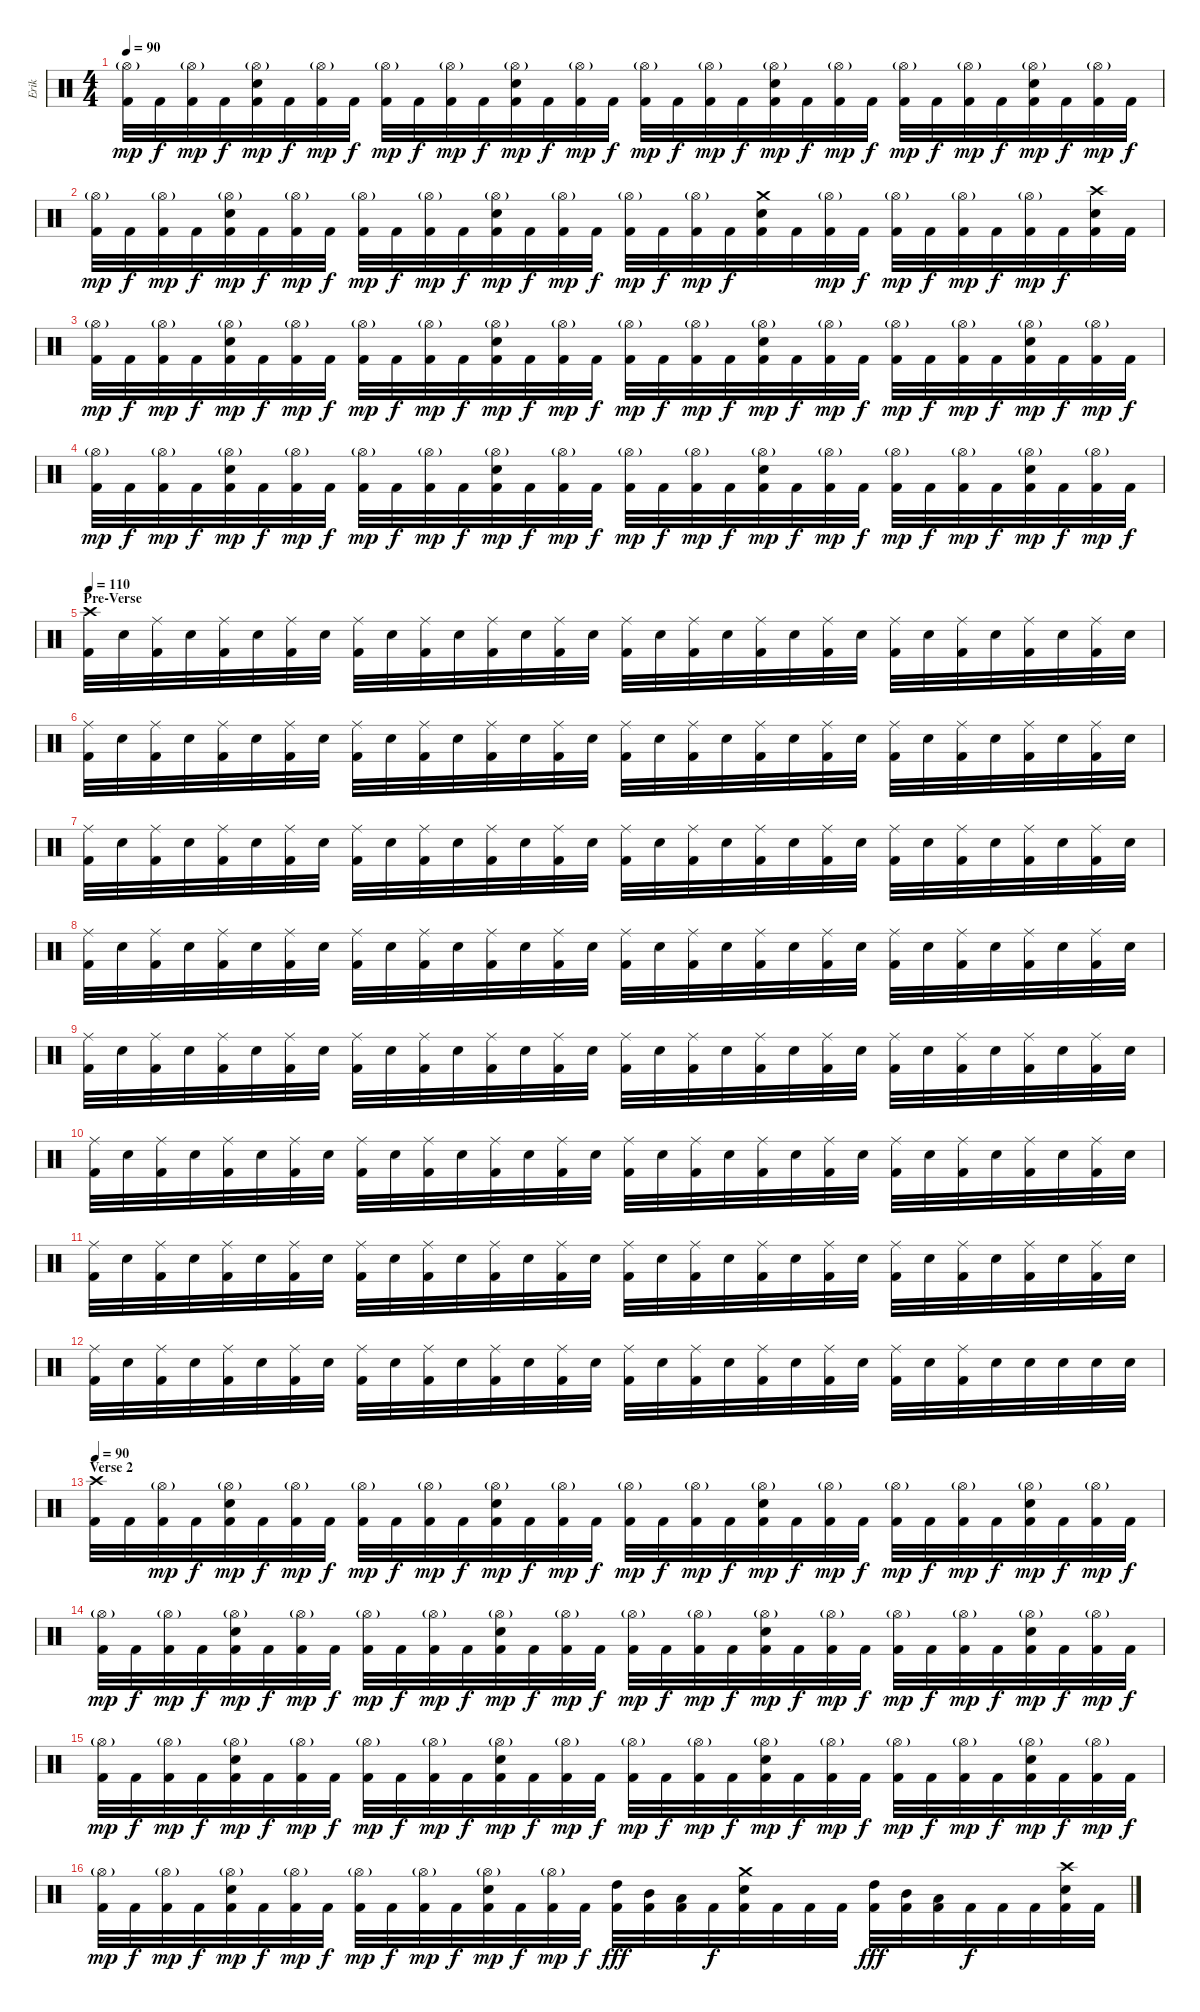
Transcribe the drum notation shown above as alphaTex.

\track ("Erik" "Erik") {instrument percussion}
\staff {score}
\articulation defaults
\ts (4 4)
\tempo 90
\clef neutral
\ks c
("Hi-Hat (open)"{g} "Kick (hit) 2").32{dy mp} "Kick (hit) 2".32{dy f} ("Hi-Hat (open)"{g} "Kick (hit) 2").32{dy mp} "Kick (hit) 2".32{dy f} ("Hi-Hat (open)"{g} "Electric Snare (hit)" "Kick (hit) 2").32{dy mp} "Kick (hit) 2".32{dy f} ("Hi-Hat (open)"{g} "Kick (hit) 2").32{dy mp} "Kick (hit) 2".32{dy f} ("Hi-Hat (open)"{g} "Kick (hit) 2").32{dy mp} "Kick (hit) 2".32{dy f} ("Hi-Hat (open)"{g} "Kick (hit) 2").32{dy mp} "Kick (hit) 2".32{dy f} ("Hi-Hat (open)"{g} "Electric Snare (hit)" "Kick (hit) 2").32{dy mp} "Kick (hit) 2".32{dy f} ("Hi-Hat (open)"{g} "Kick (hit) 2").32{dy mp} "Kick (hit) 2".32{dy f} ("Hi-Hat (open)"{g} "Kick (hit) 2").32{dy mp} "Kick (hit) 2".32{dy f} ("Hi-Hat (open)"{g} "Kick (hit) 2").32{dy mp} "Kick (hit) 2".32{dy f} ("Hi-Hat (open)"{g} "Electric Snare (hit)" "Kick (hit) 2").32{dy mp} "Kick (hit) 2".32{dy f} ("Hi-Hat (open)"{g} "Kick (hit) 2").32{dy mp} "Kick (hit) 2".32{dy f} ("Hi-Hat (open)"{g} "Kick (hit) 2").32{dy mp} "Kick (hit) 2".32{dy f} ("Hi-Hat (open)"{g} "Kick (hit) 2").32{dy mp} "Kick (hit) 2".32{dy f} ("Hi-Hat (open)"{g} "Electric Snare (hit)" "Kick (hit) 2").32{dy mp} "Kick (hit) 2".32{dy f} ("Hi-Hat (open)"{g} "Kick (hit) 2").32{dy mp} "Kick (hit) 2".32{dy f} |
("Hi-Hat (open)"{g} "Kick (hit) 2").32{dy mp} "Kick (hit) 2".32{dy f} ("Hi-Hat (open)"{g} "Kick (hit) 2").32{dy mp} "Kick (hit) 2".32{dy f} ("Hi-Hat (open)"{g} "Electric Snare (hit)" "Kick (hit) 2").32{dy mp} "Kick (hit) 2".32{dy f} ("Hi-Hat (open)"{g} "Kick (hit) 2").32{dy mp} "Kick (hit) 2".32{dy f} ("Hi-Hat (open)"{g} "Kick (hit) 2").32{dy mp} "Kick (hit) 2".32{dy f} ("Hi-Hat (open)"{g} "Kick (hit) 2").32{dy mp} "Kick (hit) 2".32{dy f} ("Hi-Hat (open)"{g} "Electric Snare (hit)" "Kick (hit) 2").32{dy mp} "Kick (hit) 2".32{dy f} ("Hi-Hat (open)"{g} "Kick (hit) 2").32{dy mp} "Kick (hit) 2".32{dy f} ("Hi-Hat (open)"{g} "Kick (hit) 2").32{dy mp} "Kick (hit) 2".32{dy f} ("Hi-Hat (open)"{g} "Kick (hit) 2").32{dy mp} "Kick (hit) 2".32{dy f} ("Crash medium (hit)" "Electric Snare (hit)" "Kick (hit) 2").32 "Kick (hit) 2".32 ("Hi-Hat (open)"{g} "Kick (hit) 2").32{dy mp} "Kick (hit) 2".32{dy f} ("Hi-Hat (open)"{g} "Kick (hit) 2").32{dy mp} "Kick (hit) 2".32{dy f} ("Hi-Hat (open)"{g} "Kick (hit) 2").32{dy mp} "Kick (hit) 2".32{dy f} ("Hi-Hat (open)"{g} "Kick (hit) 2").32{dy mp} "Kick (hit) 2".32{dy f} ("Crash high (hit)" "Electric Snare (hit)" "Kick (hit) 2").32 "Kick (hit) 2".32 |
("Hi-Hat (open)"{g} "Kick (hit) 2").32{dy mp} "Kick (hit) 2".32{dy f} ("Hi-Hat (open)"{g} "Kick (hit) 2").32{dy mp} "Kick (hit) 2".32{dy f} ("Hi-Hat (open)"{g} "Electric Snare (hit)" "Kick (hit) 2").32{dy mp} "Kick (hit) 2".32{dy f} ("Hi-Hat (open)"{g} "Kick (hit) 2").32{dy mp} "Kick (hit) 2".32{dy f} ("Hi-Hat (open)"{g} "Kick (hit) 2").32{dy mp} "Kick (hit) 2".32{dy f} ("Hi-Hat (open)"{g} "Kick (hit) 2").32{dy mp} "Kick (hit) 2".32{dy f} ("Hi-Hat (open)"{g} "Electric Snare (hit)" "Kick (hit) 2").32{dy mp} "Kick (hit) 2".32{dy f} ("Hi-Hat (open)"{g} "Kick (hit) 2").32{dy mp} "Kick (hit) 2".32{dy f} ("Hi-Hat (open)"{g} "Kick (hit) 2").32{dy mp} "Kick (hit) 2".32{dy f} ("Hi-Hat (open)"{g} "Kick (hit) 2").32{dy mp} "Kick (hit) 2".32{dy f} ("Hi-Hat (open)"{g} "Electric Snare (hit)" "Kick (hit) 2").32{dy mp} "Kick (hit) 2".32{dy f} ("Hi-Hat (open)"{g} "Kick (hit) 2").32{dy mp} "Kick (hit) 2".32{dy f} ("Hi-Hat (open)"{g} "Kick (hit) 2").32{dy mp} "Kick (hit) 2".32{dy f} ("Hi-Hat (open)"{g} "Kick (hit) 2").32{dy mp} "Kick (hit) 2".32{dy f} ("Hi-Hat (open)"{g} "Electric Snare (hit)" "Kick (hit) 2").32{dy mp} "Kick (hit) 2".32{dy f} ("Hi-Hat (open)"{g} "Kick (hit) 2").32{dy mp} "Kick (hit) 2".32{dy f} |
("Hi-Hat (open)"{g} "Kick (hit) 2").32{dy mp} "Kick (hit) 2".32{dy f} ("Hi-Hat (open)"{g} "Kick (hit) 2").32{dy mp} "Kick (hit) 2".32{dy f} ("Hi-Hat (open)"{g} "Electric Snare (hit)" "Kick (hit) 2").32{dy mp} "Kick (hit) 2".32{dy f} ("Hi-Hat (open)"{g} "Kick (hit) 2").32{dy mp} "Kick (hit) 2".32{dy f} ("Hi-Hat (open)"{g} "Kick (hit) 2").32{dy mp} "Kick (hit) 2".32{dy f} ("Hi-Hat (open)"{g} "Kick (hit) 2").32{dy mp} "Kick (hit) 2".32{dy f} ("Hi-Hat (open)"{g} "Electric Snare (hit)" "Kick (hit) 2").32{dy mp} "Kick (hit) 2".32{dy f} ("Hi-Hat (open)"{g} "Kick (hit) 2").32{dy mp} "Kick (hit) 2".32{dy f} ("Hi-Hat (open)"{g} "Kick (hit) 2").32{dy mp} "Kick (hit) 2".32{dy f} ("Hi-Hat (open)"{g} "Kick (hit) 2").32{dy mp} "Kick (hit) 2".32{dy f} ("Hi-Hat (open)"{g} "Electric Snare (hit)" "Kick (hit) 2").32{dy mp} "Kick (hit) 2".32{dy f} ("Hi-Hat (open)"{g} "Kick (hit) 2").32{dy mp} "Kick (hit) 2".32{dy f} ("Hi-Hat (open)"{g} "Kick (hit) 2").32{dy mp} "Kick (hit) 2".32{dy f} ("Hi-Hat (open)"{g} "Kick (hit) 2").32{dy mp} "Kick (hit) 2".32{dy f} ("Hi-Hat (open)"{g} "Electric Snare (hit)" "Kick (hit) 2").32{dy mp} "Kick (hit) 2".32{dy f} ("Hi-Hat (open)"{g} "Kick (hit) 2").32{dy mp} "Kick (hit) 2".32{dy f} |
\section ("" "Pre-Verse")
\tempo 110
("Crash high (hit)" "Kick (hit) 2").32 "Electric Snare (hit)".32 ("Ride (middle)" "Kick (hit) 2").32 "Electric Snare (hit)".32 ("Ride (middle)" "Kick (hit) 2").32 "Electric Snare (hit)".32 ("Ride (middle)" "Kick (hit) 2").32 "Electric Snare (hit)".32 ("Ride (middle)" "Kick (hit) 2").32 "Electric Snare (hit)".32 ("Ride (middle)" "Kick (hit) 2").32 "Electric Snare (hit)".32 ("Ride (middle)" "Kick (hit) 2").32 "Electric Snare (hit)".32 ("Ride (middle)" "Kick (hit) 2").32 "Electric Snare (hit)".32 ("Ride (middle)" "Kick (hit) 2").32 "Electric Snare (hit)".32 ("Ride (middle)" "Kick (hit) 2").32 "Electric Snare (hit)".32 ("Ride (middle)" "Kick (hit) 2").32 "Electric Snare (hit)".32 ("Ride (middle)" "Kick (hit) 2").32 "Electric Snare (hit)".32 ("Ride (middle)" "Kick (hit) 2").32 "Electric Snare (hit)".32 ("Ride (middle)" "Kick (hit) 2").32 "Electric Snare (hit)".32 ("Ride (middle)" "Kick (hit) 2").32 "Electric Snare (hit)".32 ("Ride (middle)" "Kick (hit) 2").32 "Electric Snare (hit)".32 |
("Ride (middle)" "Kick (hit) 2").32 "Electric Snare (hit)".32 ("Ride (middle)" "Kick (hit) 2").32 "Electric Snare (hit)".32 ("Ride (middle)" "Kick (hit) 2").32 "Electric Snare (hit)".32 ("Ride (middle)" "Kick (hit) 2").32 "Electric Snare (hit)".32 ("Ride (middle)" "Kick (hit) 2").32 "Electric Snare (hit)".32 ("Ride (middle)" "Kick (hit) 2").32 "Electric Snare (hit)".32 ("Ride (middle)" "Kick (hit) 2").32 "Electric Snare (hit)".32 ("Ride (middle)" "Kick (hit) 2").32 "Electric Snare (hit)".32 ("Ride (middle)" "Kick (hit) 2").32 "Electric Snare (hit)".32 ("Ride (middle)" "Kick (hit) 2").32 "Electric Snare (hit)".32 ("Ride (middle)" "Kick (hit) 2").32 "Electric Snare (hit)".32 ("Ride (middle)" "Kick (hit) 2").32 "Electric Snare (hit)".32 ("Ride (middle)" "Kick (hit) 2").32 "Electric Snare (hit)".32 ("Ride (middle)" "Kick (hit) 2").32 "Electric Snare (hit)".32 ("Ride (middle)" "Kick (hit) 2").32 "Electric Snare (hit)".32 ("Ride (middle)" "Kick (hit) 2").32 "Electric Snare (hit)".32 |
("Ride (middle)" "Kick (hit) 2").32 "Electric Snare (hit)".32 ("Ride (middle)" "Kick (hit) 2").32 "Electric Snare (hit)".32 ("Ride (middle)" "Kick (hit) 2").32 "Electric Snare (hit)".32 ("Ride (middle)" "Kick (hit) 2").32 "Electric Snare (hit)".32 ("Ride (middle)" "Kick (hit) 2").32 "Electric Snare (hit)".32 ("Ride (middle)" "Kick (hit) 2").32 "Electric Snare (hit)".32 ("Ride (middle)" "Kick (hit) 2").32 "Electric Snare (hit)".32 ("Ride (middle)" "Kick (hit) 2").32 "Electric Snare (hit)".32 ("Ride (middle)" "Kick (hit) 2").32 "Electric Snare (hit)".32 ("Ride (middle)" "Kick (hit) 2").32 "Electric Snare (hit)".32 ("Ride (middle)" "Kick (hit) 2").32 "Electric Snare (hit)".32 ("Ride (middle)" "Kick (hit) 2").32 "Electric Snare (hit)".32 ("Ride (middle)" "Kick (hit) 2").32 "Electric Snare (hit)".32 ("Ride (middle)" "Kick (hit) 2").32 "Electric Snare (hit)".32 ("Ride (middle)" "Kick (hit) 2").32 "Electric Snare (hit)".32 ("Ride (middle)" "Kick (hit) 2").32 "Electric Snare (hit)".32 |
("Ride (middle)" "Kick (hit) 2").32 "Electric Snare (hit)".32 ("Ride (middle)" "Kick (hit) 2").32 "Electric Snare (hit)".32 ("Ride (middle)" "Kick (hit) 2").32 "Electric Snare (hit)".32 ("Ride (middle)" "Kick (hit) 2").32 "Electric Snare (hit)".32 ("Ride (middle)" "Kick (hit) 2").32 "Electric Snare (hit)".32 ("Ride (middle)" "Kick (hit) 2").32 "Electric Snare (hit)".32 ("Ride (middle)" "Kick (hit) 2").32 "Electric Snare (hit)".32 ("Ride (middle)" "Kick (hit) 2").32 "Electric Snare (hit)".32 ("Ride (middle)" "Kick (hit) 2").32 "Electric Snare (hit)".32 ("Ride (middle)" "Kick (hit) 2").32 "Electric Snare (hit)".32 ("Ride (middle)" "Kick (hit) 2").32 "Electric Snare (hit)".32 ("Ride (middle)" "Kick (hit) 2").32 "Electric Snare (hit)".32 ("Ride (middle)" "Kick (hit) 2").32 "Electric Snare (hit)".32 ("Ride (middle)" "Kick (hit) 2").32 "Electric Snare (hit)".32 ("Ride (middle)" "Kick (hit) 2").32 "Electric Snare (hit)".32 ("Ride (middle)" "Kick (hit) 2").32 "Electric Snare (hit)".32 |
("Ride (middle)" "Kick (hit) 2").32 "Electric Snare (hit)".32 ("Ride (middle)" "Kick (hit) 2").32 "Electric Snare (hit)".32 ("Ride (middle)" "Kick (hit) 2").32 "Electric Snare (hit)".32 ("Ride (middle)" "Kick (hit) 2").32 "Electric Snare (hit)".32 ("Ride (middle)" "Kick (hit) 2").32 "Electric Snare (hit)".32 ("Ride (middle)" "Kick (hit) 2").32 "Electric Snare (hit)".32 ("Ride (middle)" "Kick (hit) 2").32 "Electric Snare (hit)".32 ("Ride (middle)" "Kick (hit) 2").32 "Electric Snare (hit)".32 ("Ride (middle)" "Kick (hit) 2").32 "Electric Snare (hit)".32 ("Ride (middle)" "Kick (hit) 2").32 "Electric Snare (hit)".32 ("Ride (middle)" "Kick (hit) 2").32 "Electric Snare (hit)".32 ("Ride (middle)" "Kick (hit) 2").32 "Electric Snare (hit)".32 ("Ride (middle)" "Kick (hit) 2").32 "Electric Snare (hit)".32 ("Ride (middle)" "Kick (hit) 2").32 "Electric Snare (hit)".32 ("Ride (middle)" "Kick (hit) 2").32 "Electric Snare (hit)".32 ("Ride (middle)" "Kick (hit) 2").32 "Electric Snare (hit)".32 |
("Ride (middle)" "Kick (hit) 2").32 "Electric Snare (hit)".32 ("Ride (middle)" "Kick (hit) 2").32 "Electric Snare (hit)".32 ("Ride (middle)" "Kick (hit) 2").32 "Electric Snare (hit)".32 ("Ride (middle)" "Kick (hit) 2").32 "Electric Snare (hit)".32 ("Ride (middle)" "Kick (hit) 2").32 "Electric Snare (hit)".32 ("Ride (middle)" "Kick (hit) 2").32 "Electric Snare (hit)".32 ("Ride (middle)" "Kick (hit) 2").32 "Electric Snare (hit)".32 ("Ride (middle)" "Kick (hit) 2").32 "Electric Snare (hit)".32 ("Ride (middle)" "Kick (hit) 2").32 "Electric Snare (hit)".32 ("Ride (middle)" "Kick (hit) 2").32 "Electric Snare (hit)".32 ("Ride (middle)" "Kick (hit) 2").32 "Electric Snare (hit)".32 ("Ride (middle)" "Kick (hit) 2").32 "Electric Snare (hit)".32 ("Ride (middle)" "Kick (hit) 2").32 "Electric Snare (hit)".32 ("Ride (middle)" "Kick (hit) 2").32 "Electric Snare (hit)".32 ("Ride (middle)" "Kick (hit) 2").32 "Electric Snare (hit)".32 ("Ride (middle)" "Kick (hit) 2").32 "Electric Snare (hit)".32 |
("Ride (middle)" "Kick (hit) 2").32 "Electric Snare (hit)".32 ("Ride (middle)" "Kick (hit) 2").32 "Electric Snare (hit)".32 ("Ride (middle)" "Kick (hit) 2").32 "Electric Snare (hit)".32 ("Ride (middle)" "Kick (hit) 2").32 "Electric Snare (hit)".32 ("Ride (middle)" "Kick (hit) 2").32 "Electric Snare (hit)".32 ("Ride (middle)" "Kick (hit) 2").32 "Electric Snare (hit)".32 ("Ride (middle)" "Kick (hit) 2").32 "Electric Snare (hit)".32 ("Ride (middle)" "Kick (hit) 2").32 "Electric Snare (hit)".32 ("Ride (middle)" "Kick (hit) 2").32 "Electric Snare (hit)".32 ("Ride (middle)" "Kick (hit) 2").32 "Electric Snare (hit)".32 ("Ride (middle)" "Kick (hit) 2").32 "Electric Snare (hit)".32 ("Ride (middle)" "Kick (hit) 2").32 "Electric Snare (hit)".32 ("Ride (middle)" "Kick (hit) 2").32 "Electric Snare (hit)".32 ("Ride (middle)" "Kick (hit) 2").32 "Electric Snare (hit)".32 ("Ride (middle)" "Kick (hit) 2").32 "Electric Snare (hit)".32 ("Ride (middle)" "Kick (hit) 2").32 "Electric Snare (hit)".32 |
("Ride (middle)" "Kick (hit) 2").32 "Electric Snare (hit)".32 ("Ride (middle)" "Kick (hit) 2").32 "Electric Snare (hit)".32 ("Ride (middle)" "Kick (hit) 2").32 "Electric Snare (hit)".32 ("Ride (middle)" "Kick (hit) 2").32 "Electric Snare (hit)".32 ("Ride (middle)" "Kick (hit) 2").32 "Electric Snare (hit)".32 ("Ride (middle)" "Kick (hit) 2").32 "Electric Snare (hit)".32 ("Ride (middle)" "Kick (hit) 2").32 "Electric Snare (hit)".32 ("Ride (middle)" "Kick (hit) 2").32 "Electric Snare (hit)".32 ("Ride (middle)" "Kick (hit) 2").32 "Electric Snare (hit)".32 ("Ride (middle)" "Kick (hit) 2").32 "Electric Snare (hit)".32 ("Ride (middle)" "Kick (hit) 2").32 "Electric Snare (hit)".32 ("Ride (middle)" "Kick (hit) 2").32 "Electric Snare (hit)".32 ("Ride (middle)" "Kick (hit) 2").32 "Electric Snare (hit)".32 ("Ride (middle)" "Kick (hit) 2").32 "Electric Snare (hit)".32 "Electric Snare (hit)".32 "Electric Snare (hit)".32 "Electric Snare (hit)".32 "Electric Snare (hit)".32 |
\section ("" "Verse 2")
\tempo 90
("Crash high (hit)" "Kick (hit) 2").32 "Kick (hit) 2".32 ("Hi-Hat (open)"{g} "Kick (hit) 2").32{dy mp} "Kick (hit) 2".32{dy f} ("Hi-Hat (open)"{g} "Electric Snare (hit)" "Kick (hit) 2").32{dy mp} "Kick (hit) 2".32{dy f} ("Hi-Hat (open)"{g} "Kick (hit) 2").32{dy mp} "Kick (hit) 2".32{dy f} ("Hi-Hat (open)"{g} "Kick (hit) 2").32{dy mp} "Kick (hit) 2".32{dy f} ("Hi-Hat (open)"{g} "Kick (hit) 2").32{dy mp} "Kick (hit) 2".32{dy f} ("Hi-Hat (open)"{g} "Electric Snare (hit)" "Kick (hit) 2").32{dy mp} "Kick (hit) 2".32{dy f} ("Hi-Hat (open)"{g} "Kick (hit) 2").32{dy mp} "Kick (hit) 2".32{dy f} ("Hi-Hat (open)"{g} "Kick (hit) 2").32{dy mp} "Kick (hit) 2".32{dy f} ("Hi-Hat (open)"{g} "Kick (hit) 2").32{dy mp} "Kick (hit) 2".32{dy f} ("Hi-Hat (open)"{g} "Electric Snare (hit)" "Kick (hit) 2").32{dy mp} "Kick (hit) 2".32{dy f} ("Hi-Hat (open)"{g} "Kick (hit) 2").32{dy mp} "Kick (hit) 2".32{dy f} ("Hi-Hat (open)"{g} "Kick (hit) 2").32{dy mp} "Kick (hit) 2".32{dy f} ("Hi-Hat (open)"{g} "Kick (hit) 2").32{dy mp} "Kick (hit) 2".32{dy f} ("Hi-Hat (open)"{g} "Electric Snare (hit)" "Kick (hit) 2").32{dy mp} "Kick (hit) 2".32{dy f} ("Hi-Hat (open)"{g} "Kick (hit) 2").32{dy mp} "Kick (hit) 2".32{dy f} |
("Hi-Hat (open)"{g} "Kick (hit) 2").32{dy mp} "Kick (hit) 2".32{dy f} ("Hi-Hat (open)"{g} "Kick (hit) 2").32{dy mp} "Kick (hit) 2".32{dy f} ("Hi-Hat (open)"{g} "Electric Snare (hit)" "Kick (hit) 2").32{dy mp} "Kick (hit) 2".32{dy f} ("Hi-Hat (open)"{g} "Kick (hit) 2").32{dy mp} "Kick (hit) 2".32{dy f} ("Hi-Hat (open)"{g} "Kick (hit) 2").32{dy mp} "Kick (hit) 2".32{dy f} ("Hi-Hat (open)"{g} "Kick (hit) 2").32{dy mp} "Kick (hit) 2".32{dy f} ("Hi-Hat (open)"{g} "Electric Snare (hit)" "Kick (hit) 2").32{dy mp} "Kick (hit) 2".32{dy f} ("Hi-Hat (open)"{g} "Kick (hit) 2").32{dy mp} "Kick (hit) 2".32{dy f} ("Hi-Hat (open)"{g} "Kick (hit) 2").32{dy mp} "Kick (hit) 2".32{dy f} ("Hi-Hat (open)"{g} "Kick (hit) 2").32{dy mp} "Kick (hit) 2".32{dy f} ("Hi-Hat (open)"{g} "Electric Snare (hit)" "Kick (hit) 2").32{dy mp} "Kick (hit) 2".32{dy f} ("Hi-Hat (open)"{g} "Kick (hit) 2").32{dy mp} "Kick (hit) 2".32{dy f} ("Hi-Hat (open)"{g} "Kick (hit) 2").32{dy mp} "Kick (hit) 2".32{dy f} ("Hi-Hat (open)"{g} "Kick (hit) 2").32{dy mp} "Kick (hit) 2".32{dy f} ("Hi-Hat (open)"{g} "Electric Snare (hit)" "Kick (hit) 2").32{dy mp} "Kick (hit) 2".32{dy f} ("Hi-Hat (open)"{g} "Kick (hit) 2").32{dy mp} "Kick (hit) 2".32{dy f} |
("Hi-Hat (open)"{g} "Kick (hit) 2").32{dy mp} "Kick (hit) 2".32{dy f} ("Hi-Hat (open)"{g} "Kick (hit) 2").32{dy mp} "Kick (hit) 2".32{dy f} ("Hi-Hat (open)"{g} "Electric Snare (hit)" "Kick (hit) 2").32{dy mp} "Kick (hit) 2".32{dy f} ("Hi-Hat (open)"{g} "Kick (hit) 2").32{dy mp} "Kick (hit) 2".32{dy f} ("Hi-Hat (open)"{g} "Kick (hit) 2").32{dy mp} "Kick (hit) 2".32{dy f} ("Hi-Hat (open)"{g} "Kick (hit) 2").32{dy mp} "Kick (hit) 2".32{dy f} ("Hi-Hat (open)"{g} "Electric Snare (hit)" "Kick (hit) 2").32{dy mp} "Kick (hit) 2".32{dy f} ("Hi-Hat (open)"{g} "Kick (hit) 2").32{dy mp} "Kick (hit) 2".32{dy f} ("Hi-Hat (open)"{g} "Kick (hit) 2").32{dy mp} "Kick (hit) 2".32{dy f} ("Hi-Hat (open)"{g} "Kick (hit) 2").32{dy mp} "Kick (hit) 2".32{dy f} ("Hi-Hat (open)"{g} "Electric Snare (hit)" "Kick (hit) 2").32{dy mp} "Kick (hit) 2".32{dy f} ("Hi-Hat (open)"{g} "Kick (hit) 2").32{dy mp} "Kick (hit) 2".32{dy f} ("Hi-Hat (open)"{g} "Kick (hit) 2").32{dy mp} "Kick (hit) 2".32{dy f} ("Hi-Hat (open)"{g} "Kick (hit) 2").32{dy mp} "Kick (hit) 2".32{dy f} ("Hi-Hat (open)"{g} "Electric Snare (hit)" "Kick (hit) 2").32{dy mp} "Kick (hit) 2".32{dy f} ("Hi-Hat (open)"{g} "Kick (hit) 2").32{dy mp} "Kick (hit) 2".32{dy f} |
("Hi-Hat (open)"{g} "Kick (hit) 2").32{dy mp} "Kick (hit) 2".32{dy f} ("Hi-Hat (open)"{g} "Kick (hit) 2").32{dy mp} "Kick (hit) 2".32{dy f} ("Hi-Hat (open)"{g} "Electric Snare (hit)" "Kick (hit) 2").32{dy mp} "Kick (hit) 2".32{dy f} ("Hi-Hat (open)"{g} "Kick (hit) 2").32{dy mp} "Kick (hit) 2".32{dy f} ("Hi-Hat (open)"{g} "Kick (hit) 2").32{dy mp} "Kick (hit) 2".32{dy f} ("Hi-Hat (open)"{g} "Kick (hit) 2").32{dy mp} "Kick (hit) 2".32{dy f} ("Hi-Hat (open)"{g} "Electric Snare (hit)" "Kick (hit) 2").32{dy mp} "Kick (hit) 2".32{dy f} ("Hi-Hat (open)"{g} "Kick (hit) 2").32{dy mp} "Kick (hit) 2".32{dy f} ("High Tom (hit)" "Kick (hit) 2").32{dy fff} ("Mid Tom (hit)" "Kick (hit) 2").32 ("Low Tom (hit)" "Kick (hit) 2").32 "Kick (hit) 2".32{dy f} ("Crash medium (hit)" "Electric Snare (hit)" "Kick (hit) 2").32 "Kick (hit) 2".32 "Kick (hit) 2".32 "Kick (hit) 2".32 ("High Tom (hit)" "Kick (hit) 2").32{dy fff} ("Mid Tom (hit)" "Kick (hit) 2").32 ("Low Tom (hit)" "Kick (hit) 2").32 "Kick (hit) 2".32{dy f} "Kick (hit) 2".32 "Kick (hit) 2".32 ("Crash high (hit)" "Electric Snare (hit)" "Kick (hit) 2").32 "Kick (hit) 2".32
